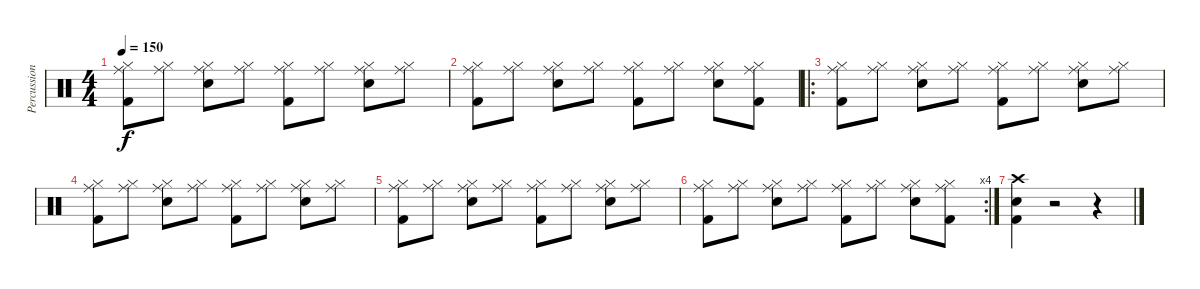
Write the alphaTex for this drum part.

\track ("Percussion" "Percussion") {instrument percussion}
\staff {score}
\articulation defaults
\ts (4 4)
\tempo 150
\clef neutral
\ks c
("Hi-Hat (closed)" "Ride (middle)" "Kick (hit) 2").8{dy f} ("Hi-Hat (closed)" "Ride (middle)").8 ("Hi-Hat (closed)" "Ride (middle)" "Electric Snare (hit)").8 ("Hi-Hat (closed)" "Ride (middle)").8 ("Hi-Hat (closed)" "Ride (middle)" "Kick (hit) 2").8 ("Hi-Hat (closed)" "Ride (middle)").8 ("Hi-Hat (closed)" "Ride (middle)" "Electric Snare (hit)").8 ("Hi-Hat (closed)" "Ride (middle)").8 |
("Hi-Hat (closed)" "Ride (middle)" "Kick (hit) 2").8 ("Hi-Hat (closed)" "Ride (middle)").8 ("Hi-Hat (closed)" "Ride (middle)" "Electric Snare (hit)").8 ("Hi-Hat (closed)" "Ride (middle)").8 ("Hi-Hat (closed)" "Ride (middle)" "Kick (hit) 2").8 ("Hi-Hat (closed)" "Ride (middle)").8 ("Hi-Hat (closed)" "Ride (middle)" "Electric Snare (hit)").8 ("Hi-Hat (closed)" "Ride (middle)" "Kick (hit) 2").8 |
\ro
("Hi-Hat (closed)" "Ride (middle)" "Kick (hit) 2").8 ("Hi-Hat (closed)" "Ride (middle)").8 ("Hi-Hat (closed)" "Ride (middle)" "Electric Snare (hit)").8 ("Hi-Hat (closed)" "Ride (middle)").8 ("Hi-Hat (closed)" "Ride (middle)" "Kick (hit) 2").8 ("Hi-Hat (closed)" "Ride (middle)").8 ("Hi-Hat (closed)" "Ride (middle)" "Electric Snare (hit)").8 ("Hi-Hat (closed)" "Ride (middle)").8 |
("Hi-Hat (closed)" "Ride (middle)" "Kick (hit) 2").8 ("Hi-Hat (closed)" "Ride (middle)").8 ("Hi-Hat (closed)" "Ride (middle)" "Electric Snare (hit)").8 ("Hi-Hat (closed)" "Ride (middle)").8 ("Hi-Hat (closed)" "Ride (middle)" "Kick (hit) 2").8 ("Hi-Hat (closed)" "Ride (middle)").8 ("Hi-Hat (closed)" "Ride (middle)" "Electric Snare (hit)").8 ("Hi-Hat (closed)" "Ride (middle)").8 |
("Hi-Hat (closed)" "Ride (middle)" "Kick (hit) 2").8 ("Hi-Hat (closed)" "Ride (middle)").8 ("Hi-Hat (closed)" "Ride (middle)" "Electric Snare (hit)").8 ("Hi-Hat (closed)" "Ride (middle)").8 ("Hi-Hat (closed)" "Ride (middle)" "Kick (hit) 2").8 ("Hi-Hat (closed)" "Ride (middle)").8 ("Hi-Hat (closed)" "Ride (middle)" "Electric Snare (hit)").8 ("Hi-Hat (closed)" "Ride (middle)").8 |
\rc 4
("Hi-Hat (closed)" "Ride (middle)" "Kick (hit) 2").8 ("Hi-Hat (closed)" "Ride (middle)").8 ("Hi-Hat (closed)" "Ride (middle)" "Electric Snare (hit)").8 ("Hi-Hat (closed)" "Ride (middle)").8 ("Hi-Hat (closed)" "Ride (middle)" "Kick (hit) 2").8 ("Hi-Hat (closed)" "Ride (middle)").8 ("Hi-Hat (closed)" "Ride (middle)" "Electric Snare (hit)").8 ("Hi-Hat (closed)" "Ride (middle)" "Kick (hit) 2").8 |
("Electric Snare (hit)" "Crash high (hit)" "Kick (hit) 2").4 r.2 r.4
